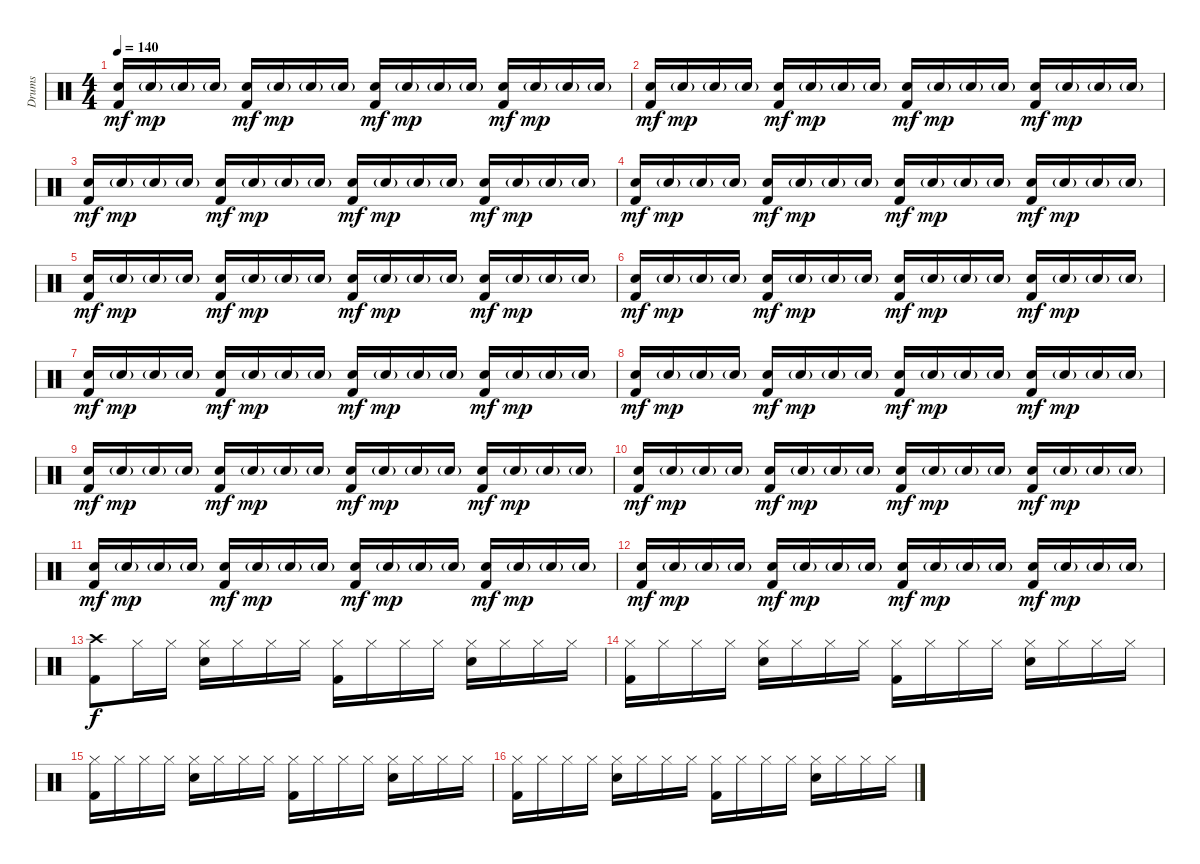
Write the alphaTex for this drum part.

\track ("Drums" "Drums") {instrument percussion}
\staff {score}
\articulation defaults
\ts (4 4)
\tempo 140
\clef neutral
\ks c
("Electric Snare (hit)" "Kick (hit) 2").16{dy mf} "Electric Snare (hit)"{g}.16{dy mp} "Electric Snare (hit)"{g}.16 "Electric Snare (hit)"{g}.16 ("Electric Snare (hit)" "Kick (hit) 2").16{dy mf} "Electric Snare (hit)"{g}.16{dy mp} "Electric Snare (hit)"{g}.16 "Electric Snare (hit)"{g}.16 ("Electric Snare (hit)" "Kick (hit) 2").16{dy mf} "Electric Snare (hit)"{g}.16{dy mp} "Electric Snare (hit)"{g}.16 "Electric Snare (hit)"{g}.16 ("Electric Snare (hit)" "Kick (hit) 2").16{dy mf} "Electric Snare (hit)"{g}.16{dy mp} "Electric Snare (hit)"{g}.16 "Electric Snare (hit)"{g}.16 |
("Electric Snare (hit)" "Kick (hit) 2").16{dy mf} "Electric Snare (hit)"{g}.16{dy mp} "Electric Snare (hit)"{g}.16 "Electric Snare (hit)"{g}.16 ("Electric Snare (hit)" "Kick (hit) 2").16{dy mf} "Electric Snare (hit)"{g}.16{dy mp} "Electric Snare (hit)"{g}.16 "Electric Snare (hit)"{g}.16 ("Electric Snare (hit)" "Kick (hit) 2").16{dy mf} "Electric Snare (hit)"{g}.16{dy mp} "Electric Snare (hit)"{g}.16 "Electric Snare (hit)"{g}.16 ("Electric Snare (hit)" "Kick (hit) 2").16{dy mf} "Electric Snare (hit)"{g}.16{dy mp} "Electric Snare (hit)"{g}.16 "Electric Snare (hit)"{g}.16 |
("Electric Snare (hit)" "Kick (hit) 2").16{dy mf} "Electric Snare (hit)"{g}.16{dy mp} "Electric Snare (hit)"{g}.16 "Electric Snare (hit)"{g}.16 ("Electric Snare (hit)" "Kick (hit) 2").16{dy mf} "Electric Snare (hit)"{g}.16{dy mp} "Electric Snare (hit)"{g}.16 "Electric Snare (hit)"{g}.16 ("Electric Snare (hit)" "Kick (hit) 2").16{dy mf} "Electric Snare (hit)"{g}.16{dy mp} "Electric Snare (hit)"{g}.16 "Electric Snare (hit)"{g}.16 ("Electric Snare (hit)" "Kick (hit) 2").16{dy mf} "Electric Snare (hit)"{g}.16{dy mp} "Electric Snare (hit)"{g}.16 "Electric Snare (hit)"{g}.16 |
("Electric Snare (hit)" "Kick (hit) 2").16{dy mf} "Electric Snare (hit)"{g}.16{dy mp} "Electric Snare (hit)"{g}.16 "Electric Snare (hit)"{g}.16 ("Electric Snare (hit)" "Kick (hit) 2").16{dy mf} "Electric Snare (hit)"{g}.16{dy mp} "Electric Snare (hit)"{g}.16 "Electric Snare (hit)"{g}.16 ("Electric Snare (hit)" "Kick (hit) 2").16{dy mf} "Electric Snare (hit)"{g}.16{dy mp} "Electric Snare (hit)"{g}.16 "Electric Snare (hit)"{g}.16 ("Electric Snare (hit)" "Kick (hit) 2").16{dy mf} "Electric Snare (hit)"{g}.16{dy mp} "Electric Snare (hit)"{g}.16 "Electric Snare (hit)"{g}.16 |
("Electric Snare (hit)" "Kick (hit) 2").16{dy mf} "Electric Snare (hit)"{g}.16{dy mp} "Electric Snare (hit)"{g}.16 "Electric Snare (hit)"{g}.16 ("Electric Snare (hit)" "Kick (hit) 2").16{dy mf} "Electric Snare (hit)"{g}.16{dy mp} "Electric Snare (hit)"{g}.16 "Electric Snare (hit)"{g}.16 ("Electric Snare (hit)" "Kick (hit) 2").16{dy mf} "Electric Snare (hit)"{g}.16{dy mp} "Electric Snare (hit)"{g}.16 "Electric Snare (hit)"{g}.16 ("Electric Snare (hit)" "Kick (hit) 2").16{dy mf} "Electric Snare (hit)"{g}.16{dy mp} "Electric Snare (hit)"{g}.16 "Electric Snare (hit)"{g}.16 |
("Electric Snare (hit)" "Kick (hit) 2").16{dy mf} "Electric Snare (hit)"{g}.16{dy mp} "Electric Snare (hit)"{g}.16 "Electric Snare (hit)"{g}.16 ("Electric Snare (hit)" "Kick (hit) 2").16{dy mf} "Electric Snare (hit)"{g}.16{dy mp} "Electric Snare (hit)"{g}.16 "Electric Snare (hit)"{g}.16 ("Electric Snare (hit)" "Kick (hit) 2").16{dy mf} "Electric Snare (hit)"{g}.16{dy mp} "Electric Snare (hit)"{g}.16 "Electric Snare (hit)"{g}.16 ("Electric Snare (hit)" "Kick (hit) 2").16{dy mf} "Electric Snare (hit)"{g}.16{dy mp} "Electric Snare (hit)"{g}.16 "Electric Snare (hit)"{g}.16 |
("Electric Snare (hit)" "Kick (hit) 2").16{dy mf} "Electric Snare (hit)"{g}.16{dy mp} "Electric Snare (hit)"{g}.16 "Electric Snare (hit)"{g}.16 ("Electric Snare (hit)" "Kick (hit) 2").16{dy mf} "Electric Snare (hit)"{g}.16{dy mp} "Electric Snare (hit)"{g}.16 "Electric Snare (hit)"{g}.16 ("Electric Snare (hit)" "Kick (hit) 2").16{dy mf} "Electric Snare (hit)"{g}.16{dy mp} "Electric Snare (hit)"{g}.16 "Electric Snare (hit)"{g}.16 ("Electric Snare (hit)" "Kick (hit) 2").16{dy mf} "Electric Snare (hit)"{g}.16{dy mp} "Electric Snare (hit)"{g}.16 "Electric Snare (hit)"{g}.16 |
("Electric Snare (hit)" "Kick (hit) 2").16{dy mf} "Electric Snare (hit)"{g}.16{dy mp} "Electric Snare (hit)"{g}.16 "Electric Snare (hit)"{g}.16 ("Electric Snare (hit)" "Kick (hit) 2").16{dy mf} "Electric Snare (hit)"{g}.16{dy mp} "Electric Snare (hit)"{g}.16 "Electric Snare (hit)"{g}.16 ("Electric Snare (hit)" "Kick (hit) 2").16{dy mf} "Electric Snare (hit)"{g}.16{dy mp} "Electric Snare (hit)"{g}.16 "Electric Snare (hit)"{g}.16 ("Electric Snare (hit)" "Kick (hit) 2").16{dy mf} "Electric Snare (hit)"{g}.16{dy mp} "Electric Snare (hit)"{g}.16 "Electric Snare (hit)"{g}.16 |
("Electric Snare (hit)" "Kick (hit) 2").16{dy mf} "Electric Snare (hit)"{g}.16{dy mp} "Electric Snare (hit)"{g}.16 "Electric Snare (hit)"{g}.16 ("Electric Snare (hit)" "Kick (hit) 2").16{dy mf} "Electric Snare (hit)"{g}.16{dy mp} "Electric Snare (hit)"{g}.16 "Electric Snare (hit)"{g}.16 ("Electric Snare (hit)" "Kick (hit) 2").16{dy mf} "Electric Snare (hit)"{g}.16{dy mp} "Electric Snare (hit)"{g}.16 "Electric Snare (hit)"{g}.16 ("Electric Snare (hit)" "Kick (hit) 2").16{dy mf} "Electric Snare (hit)"{g}.16{dy mp} "Electric Snare (hit)"{g}.16 "Electric Snare (hit)"{g}.16 |
("Electric Snare (hit)" "Kick (hit) 2").16{dy mf} "Electric Snare (hit)"{g}.16{dy mp} "Electric Snare (hit)"{g}.16 "Electric Snare (hit)"{g}.16 ("Electric Snare (hit)" "Kick (hit) 2").16{dy mf} "Electric Snare (hit)"{g}.16{dy mp} "Electric Snare (hit)"{g}.16 "Electric Snare (hit)"{g}.16 ("Electric Snare (hit)" "Kick (hit) 2").16{dy mf} "Electric Snare (hit)"{g}.16{dy mp} "Electric Snare (hit)"{g}.16 "Electric Snare (hit)"{g}.16 ("Electric Snare (hit)" "Kick (hit) 2").16{dy mf} "Electric Snare (hit)"{g}.16{dy mp} "Electric Snare (hit)"{g}.16 "Electric Snare (hit)"{g}.16 |
("Electric Snare (hit)" "Kick (hit) 2").16{dy mf} "Electric Snare (hit)"{g}.16{dy mp} "Electric Snare (hit)"{g}.16 "Electric Snare (hit)"{g}.16 ("Electric Snare (hit)" "Kick (hit) 2").16{dy mf} "Electric Snare (hit)"{g}.16{dy mp} "Electric Snare (hit)"{g}.16 "Electric Snare (hit)"{g}.16 ("Electric Snare (hit)" "Kick (hit) 2").16{dy mf} "Electric Snare (hit)"{g}.16{dy mp} "Electric Snare (hit)"{g}.16 "Electric Snare (hit)"{g}.16 ("Electric Snare (hit)" "Kick (hit) 2").16{dy mf} "Electric Snare (hit)"{g}.16{dy mp} "Electric Snare (hit)"{g}.16 "Electric Snare (hit)"{g}.16 |
("Electric Snare (hit)" "Kick (hit) 2").16{dy mf} "Electric Snare (hit)"{g}.16{dy mp} "Electric Snare (hit)"{g}.16 "Electric Snare (hit)"{g}.16 ("Electric Snare (hit)" "Kick (hit) 2").16{dy mf} "Electric Snare (hit)"{g}.16{dy mp} "Electric Snare (hit)"{g}.16 "Electric Snare (hit)"{g}.16 ("Electric Snare (hit)" "Kick (hit) 2").16{dy mf} "Electric Snare (hit)"{g}.16{dy mp} "Electric Snare (hit)"{g}.16 "Electric Snare (hit)"{g}.16 ("Electric Snare (hit)" "Kick (hit) 2").16{dy mf} "Electric Snare (hit)"{g}.16{dy mp} "Electric Snare (hit)"{g}.16 "Electric Snare (hit)"{g}.16 |
("Crash high (hit)" "Kick (hit) 2").8{dy f} "Hi-Hat (closed)".16 "Hi-Hat (closed)".16 ("Hi-Hat (closed)" "Electric Snare (hit)").16 "Hi-Hat (closed)".16 "Hi-Hat (closed)".16 "Hi-Hat (closed)".16 ("Hi-Hat (closed)" "Kick (hit) 2").16 "Hi-Hat (closed)".16 "Hi-Hat (closed)".16 "Hi-Hat (closed)".16 ("Hi-Hat (closed)" "Electric Snare (hit)").16 "Hi-Hat (closed)".16 "Hi-Hat (closed)".16 "Hi-Hat (closed)".16 |
("Hi-Hat (closed)" "Kick (hit) 2").16 "Hi-Hat (closed)".16 "Hi-Hat (closed)".16 "Hi-Hat (closed)".16 ("Hi-Hat (closed)" "Electric Snare (hit)").16 "Hi-Hat (closed)".16 "Hi-Hat (closed)".16 "Hi-Hat (closed)".16 ("Hi-Hat (closed)" "Kick (hit) 2").16 "Hi-Hat (closed)".16 "Hi-Hat (closed)".16 "Hi-Hat (closed)".16 ("Hi-Hat (closed)" "Electric Snare (hit)").16 "Hi-Hat (closed)".16 "Hi-Hat (closed)".16 "Hi-Hat (closed)".16 |
("Hi-Hat (closed)" "Kick (hit) 2").16 "Hi-Hat (closed)".16 "Hi-Hat (closed)".16 "Hi-Hat (closed)".16 ("Hi-Hat (closed)" "Electric Snare (hit)").16 "Hi-Hat (closed)".16 "Hi-Hat (closed)".16 "Hi-Hat (closed)".16 ("Hi-Hat (closed)" "Kick (hit) 2").16 "Hi-Hat (closed)".16 "Hi-Hat (closed)".16 "Hi-Hat (closed)".16 ("Hi-Hat (closed)" "Electric Snare (hit)").16 "Hi-Hat (closed)".16 "Hi-Hat (closed)".16 "Hi-Hat (closed)".16 |
("Hi-Hat (closed)" "Kick (hit) 2").16 "Hi-Hat (closed)".16 "Hi-Hat (closed)".16 "Hi-Hat (closed)".16 ("Hi-Hat (closed)" "Electric Snare (hit)").16 "Hi-Hat (closed)".16 "Hi-Hat (closed)".16 "Hi-Hat (closed)".16 ("Hi-Hat (closed)" "Kick (hit) 2").16 "Hi-Hat (closed)".16 "Hi-Hat (closed)".16 "Hi-Hat (closed)".16 ("Hi-Hat (closed)" "Electric Snare (hit)").16 "Hi-Hat (closed)".16 "Hi-Hat (closed)".16 "Hi-Hat (closed)".16
